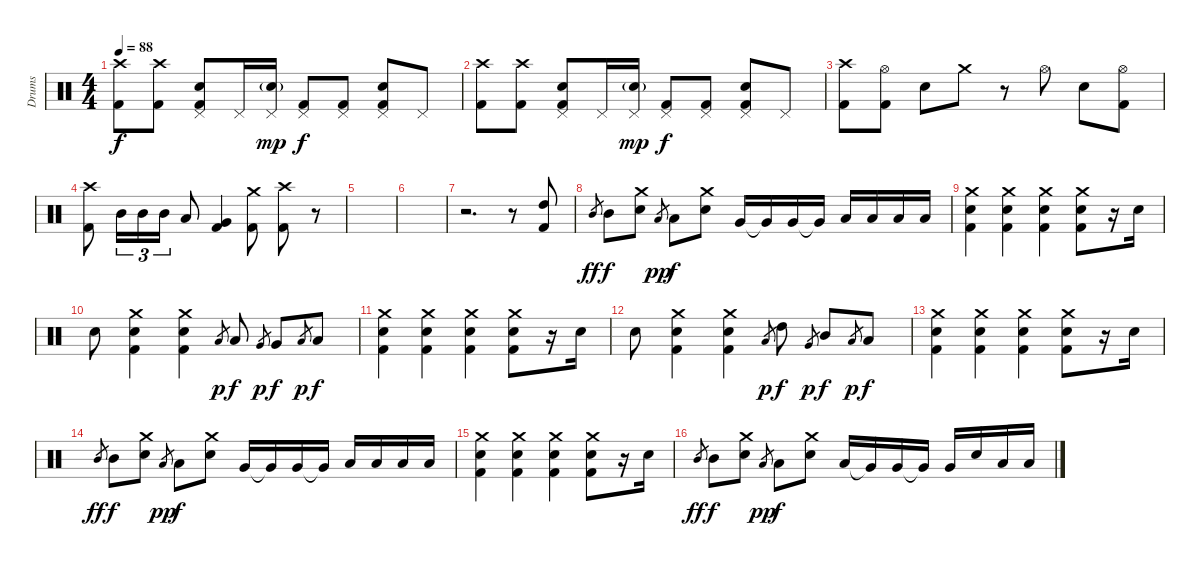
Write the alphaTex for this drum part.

\track ("Drums" "Drums") {instrument percussion}
\staff {score}
\articulation defaults
\ts (4 4)
\tempo 88
\clef neutral
\ks c
("Crash high (hit)" "Kick (hit) 2").8{dy f} ("Crash high (hit)" "Kick (hit) 2").8 ("Pedal Hi-Hat (hit)" "Snare (hit) 2" "Kick (hit) 2").8 "Pedal Hi-Hat (hit)".16 ("Pedal Hi-Hat (hit)" "Snare (hit) 2"{g}).16{dy mp} ("Pedal Hi-Hat (hit)" "Kick (hit) 2").8{dy f} ("Pedal Hi-Hat (hit)" "Kick (hit) 2").8 ("Pedal Hi-Hat (hit)" "Snare (hit) 2" "Kick (hit) 2").8 "Pedal Hi-Hat (hit)".8 |
("Crash high (hit)" "Kick (hit) 2").8 ("Crash high (hit)" "Kick (hit) 2").8 ("Pedal Hi-Hat (hit)" "Snare (hit) 2" "Kick (hit) 2").8 "Pedal Hi-Hat (hit)".16 ("Pedal Hi-Hat (hit)" "Snare (hit) 2"{g}).16{dy mp} ("Pedal Hi-Hat (hit)" "Kick (hit) 2").8{dy f} ("Pedal Hi-Hat (hit)" "Kick (hit) 2").8 ("Pedal Hi-Hat (hit)" "Snare (hit) 2" "Kick (hit) 2").8 "Pedal Hi-Hat (hit)".8 |
("Crash high (hit)" "Kick (hit) 2").8 ("Hi-Hat (open)" "Kick (hit) 2").8 "Snare (hit) 2".8 "Crash medium (hit)".8 r.8 "Hi-Hat (open)".8 "Snare (hit) 2".8 ("Hi-Hat (open)" "Kick (hit) 2").8 |
("Crash high (hit)" "Kick (hit) 2").8 "Mid Tom (hit)".16{tu (3 2)} "Mid Tom (hit)".16{tu (3 2)} "Mid Tom (hit)".16{tu (3 2)} "Low Tom (hit)".8 ("Very Low Tom (hit)" "Kick (hit) 2").4 ("Crash medium (hit)" "Kick (hit) 2").8 ("Crash high (hit)" "Kick (hit) 2").8 r.8 |
|
|
r.2{d} r.8 ("High Tom (hit)" "Kick (hit) 2").8 |
"Mid Tom (hit)".8{gr dy ff} "Mid Tom (hit)".8{dy f} ("Crash medium (hit)" "Snare (hit) 2").8 "Low Tom (hit)".8{gr dy pp} "Low Tom (hit)".8{dy f} ("Crash medium (hit)" "Snare (hit) 2").8 "Very Low Tom (hit)".16 "Very Low Tom (hit)"{t}.16 "Very Low Tom (hit)".16 "Very Low Tom (hit)"{t}.16 "Low Floor Tom (hit)".16 "Low Floor Tom (hit)".16 "Low Floor Tom (hit)".16 "Low Floor Tom (hit)".16 |
("Crash medium (hit)" "Snare (hit) 2" "Kick (hit) 2").4 ("Crash medium (hit)" "Snare (hit) 2" "Kick (hit) 2").4 ("Crash medium (hit)" "Snare (hit) 2" "Kick (hit) 2").4 ("Crash medium (hit)" "Snare (hit) 2" "Kick (hit) 2").8 r.16 "Snare (hit) 2".16 |
"Snare (hit) 2".8 ("Crash medium (hit)" "Snare (hit) 2" "Kick (hit) 2").4 ("Crash medium (hit)" "Snare (hit) 2" "Kick (hit) 2").4 "Low Tom (hit)".8{gr dy p} "Low Tom (hit)".8{dy f} "Very Low Tom (hit)".8{gr dy p} "Very Low Tom (hit)".8{dy f} "Low Floor Tom (hit)".8{gr dy p} "Low Floor Tom (hit)".8{dy f} |
("Crash medium (hit)" "Snare (hit) 2" "Kick (hit) 2").4 ("Crash medium (hit)" "Snare (hit) 2" "Kick (hit) 2").4 ("Crash medium (hit)" "Snare (hit) 2" "Kick (hit) 2").4 ("Crash medium (hit)" "Snare (hit) 2" "Kick (hit) 2").8 r.16 "Snare (hit) 2".16 |
"Snare (hit) 2".8 ("Crash medium (hit)" "Snare (hit) 2" "Kick (hit) 2").4 ("Crash medium (hit)" "Snare (hit) 2" "Kick (hit) 2").4 "Low Tom (hit)".8{gr dy p} "High Tom (hit)".8{dy f} "Very Low Tom (hit)".8{gr dy p} "Mid Tom (hit)".8{dy f} "Low Floor Tom (hit)".8{gr dy p} "Low Tom (hit)".8{dy f} |
("Crash medium (hit)" "Snare (hit) 2" "Kick (hit) 2").4 ("Crash medium (hit)" "Snare (hit) 2" "Kick (hit) 2").4 ("Crash medium (hit)" "Snare (hit) 2" "Kick (hit) 2").4 ("Crash medium (hit)" "Snare (hit) 2" "Kick (hit) 2").8 r.16 "Snare (hit) 2".16 |
"Mid Tom (hit)".8{gr dy ff} "Mid Tom (hit)".8{dy f} ("Crash medium (hit)" "Snare (hit) 2").8 "Low Tom (hit)".8{gr dy pp} "Low Tom (hit)".8{dy f} ("Crash medium (hit)" "Snare (hit) 2").8 "Very Low Tom (hit)".16 "Very Low Tom (hit)"{t}.16 "Very Low Tom (hit)".16 "Very Low Tom (hit)"{t}.16 "Low Floor Tom (hit)".16 "Low Floor Tom (hit)".16 "Low Floor Tom (hit)".16 "Low Floor Tom (hit)".16 |
("Crash medium (hit)" "Snare (hit) 2" "Kick (hit) 2").4 ("Crash medium (hit)" "Snare (hit) 2" "Kick (hit) 2").4 ("Crash medium (hit)" "Snare (hit) 2" "Kick (hit) 2").4 ("Crash medium (hit)" "Snare (hit) 2" "Kick (hit) 2").8 r.16 "Snare (hit) 2".16 |
"Mid Tom (hit)".8{gr dy ff} "Mid Tom (hit)".8{dy f} ("Crash medium (hit)" "Snare (hit) 2").8 "Low Tom (hit)".8{gr dy pp} "Low Tom (hit)".8{dy f} ("Crash medium (hit)" "Snare (hit) 2").8 "Low Tom (hit)".16 "Very Low Tom (hit)"{t}.16 "Very Low Tom (hit)".16 "Very Low Tom (hit)"{t}.16 "Very Low Tom (hit)".16 "Snare (hit) 2".16 "Low Floor Tom (hit)".16 "Low Floor Tom (hit)".16
